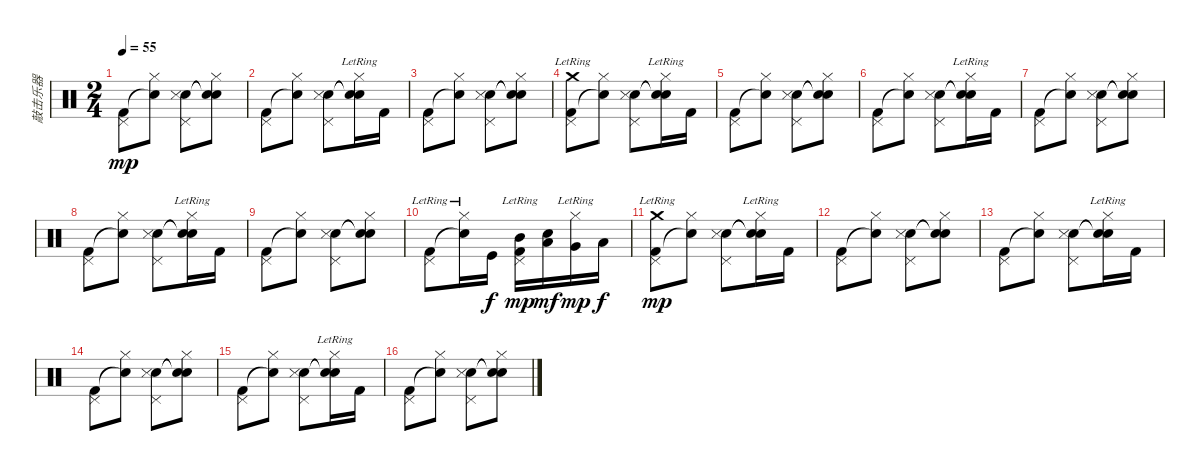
\track ("敲击乐器" "敲击乐器") {instrument percussion}
\staff {score}
\articulation defaults
\ts (2 4)
\tempo 55
\clef neutral
\ks c
("Kick (hit) 2" "Pedal Hi-Hat (hit)").8{dy mp} ("Snare (hit)"{t} "Hi-Hat (closed)").8 ("Snare (hit) 2" "Snare (side stick) 3" "Pedal Hi-Hat (hit)").8 ("Snare (hit)"{t} "Snare (hit)"{t} "Hi-Hat (closed)").8 |
("Kick (hit) 2" "Pedal Hi-Hat (hit)").8 ("Snare (hit)"{t} "Hi-Hat (closed)").8 ("Snare (hit) 2" "Snare (side stick) 3" "Pedal Hi-Hat (hit)").8 ("Snare (hit)"{t} "Snare (hit)"{t} "Hi-Hat (closed)"{lr}).16 "Kick (hit) 2".16 |
("Kick (hit) 2" "Pedal Hi-Hat (hit)").8 ("Snare (hit)"{t} "Hi-Hat (closed)").8 ("Snare (hit) 2" "Snare (side stick) 3" "Pedal Hi-Hat (hit)").8 ("Snare (hit)"{t} "Snare (hit)"{t} "Hi-Hat (closed)").8 |
("Kick (hit) 2" "Crash medium (hit)"{lr} "Pedal Hi-Hat (hit)").8 ("Snare (hit)"{t} "Hi-Hat (closed)").8 ("Snare (hit) 2" "Snare (side stick) 3" "Pedal Hi-Hat (hit)").8 ("Snare (hit)"{t} "Snare (hit)"{t} "Hi-Hat (closed)"{lr}).16 "Kick (hit) 2".16 |
("Kick (hit) 2" "Pedal Hi-Hat (hit)").8 ("Snare (hit)"{t} "Hi-Hat (closed)").8 ("Snare (hit) 2" "Snare (side stick) 3" "Pedal Hi-Hat (hit)").8 ("Snare (hit)"{t} "Snare (hit)"{t} "Hi-Hat (closed)").8 |
("Kick (hit) 2" "Pedal Hi-Hat (hit)").8 ("Snare (hit)"{t} "Hi-Hat (closed)").8 ("Snare (hit) 2" "Snare (side stick) 3" "Pedal Hi-Hat (hit)").8 ("Snare (hit)"{t} "Snare (hit)"{t} "Hi-Hat (closed)"{lr}).16 "Kick (hit) 2".16 |
("Kick (hit) 2" "Pedal Hi-Hat (hit)").8 ("Snare (hit)"{t} "Hi-Hat (closed)").8 ("Snare (hit) 2" "Snare (side stick) 3" "Pedal Hi-Hat (hit)").8 ("Snare (hit)"{t} "Snare (hit)"{t} "Hi-Hat (closed)").8 |
("Kick (hit) 2" "Pedal Hi-Hat (hit)").8 ("Snare (hit)"{t} "Hi-Hat (closed)").8 ("Snare (hit) 2" "Snare (side stick) 3" "Pedal Hi-Hat (hit)").8 ("Snare (hit)"{t} "Snare (hit)"{t} "Hi-Hat (closed)"{lr}).16 "Kick (hit) 2".16 |
("Kick (hit) 2" "Pedal Hi-Hat (hit)").8 ("Snare (hit)"{t} "Hi-Hat (closed)").8 ("Snare (hit) 2" "Snare (side stick) 3" "Pedal Hi-Hat (hit)").8 ("Snare (hit)"{t} "Snare (hit)"{t} "Hi-Hat (closed)").8 |
("Kick (hit) 2" "Pedal Hi-Hat (hit)"{lr}).8 ("Snare (hit)"{t} "Hi-Hat (closed)"{lr}).16 "Kick (hit)".16{dy f} ("Mid Tom (hit)" "Kick (hit) 2"{lr} "Pedal Hi-Hat (hit)"{lr}).16{dy mp} ("Low Tom (hit)" "Snare (hit) 2").16{dy mf} ("Very Low Tom (hit)" "Hi-Hat (closed)"{lr}).16{dy mp} "Low Floor Tom (hit)".16{dy f} |
("Kick (hit) 2" "Crash medium (hit)"{lr} "Pedal Hi-Hat (hit)").8{dy mp} ("Snare (hit)"{t} "Hi-Hat (closed)").8 ("Snare (hit) 2" "Snare (side stick) 3" "Pedal Hi-Hat (hit)").8 ("Snare (hit)"{t} "Snare (hit)"{t} "Hi-Hat (closed)"{lr}).16 "Kick (hit) 2".16 |
("Kick (hit) 2" "Pedal Hi-Hat (hit)").8 ("Snare (hit)"{t} "Hi-Hat (closed)").8 ("Snare (hit) 2" "Snare (side stick) 3" "Pedal Hi-Hat (hit)").8 ("Snare (hit)"{t} "Snare (hit)"{t} "Hi-Hat (closed)").8 |
("Kick (hit) 2" "Pedal Hi-Hat (hit)").8 ("Snare (hit)"{t} "Hi-Hat (closed)").8 ("Snare (hit) 2" "Snare (side stick) 3" "Pedal Hi-Hat (hit)").8 ("Snare (hit)"{t} "Snare (hit)"{t} "Hi-Hat (closed)"{lr}).16 "Kick (hit) 2".16 |
("Kick (hit) 2" "Pedal Hi-Hat (hit)").8 ("Snare (hit)"{t} "Hi-Hat (closed)").8 ("Snare (hit) 2" "Snare (side stick) 3" "Pedal Hi-Hat (hit)").8 ("Snare (hit)"{t} "Snare (hit)"{t} "Hi-Hat (closed)").8 |
("Kick (hit) 2" "Pedal Hi-Hat (hit)").8 ("Snare (hit)"{t} "Hi-Hat (closed)").8 ("Snare (hit) 2" "Snare (side stick) 3" "Pedal Hi-Hat (hit)").8 ("Snare (hit)"{t} "Snare (hit)"{t} "Hi-Hat (closed)"{lr}).16 "Kick (hit) 2".16 |
("Kick (hit) 2" "Pedal Hi-Hat (hit)").8 ("Snare (hit)"{t} "Hi-Hat (closed)").8 ("Snare (hit) 2" "Snare (side stick) 3" "Pedal Hi-Hat (hit)").8 ("Snare (hit)"{t} "Snare (hit)"{t} "Hi-Hat (closed)").8
